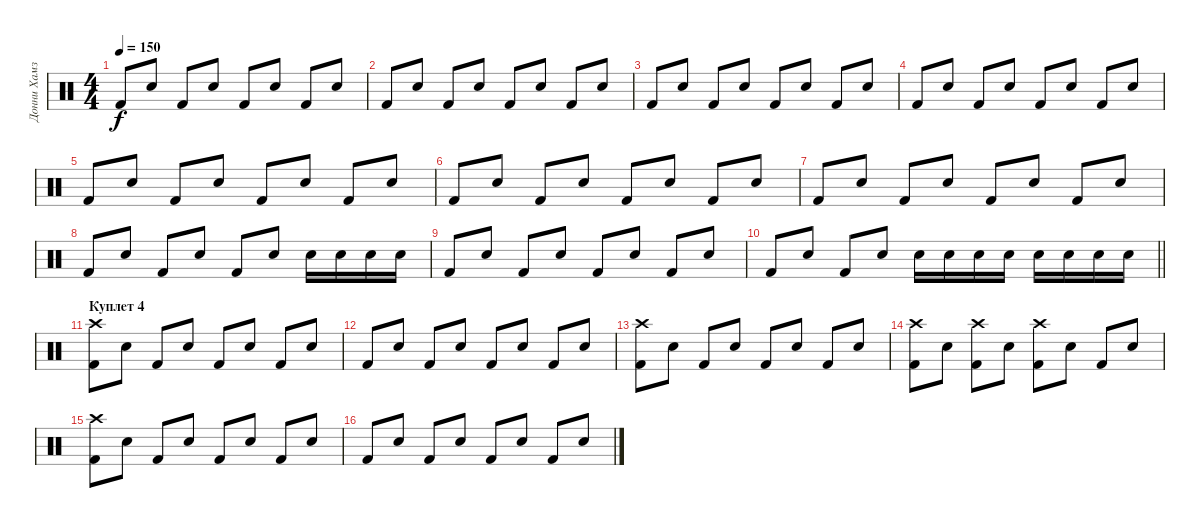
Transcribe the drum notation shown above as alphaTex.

\track ("Донни Хамзик" "Донни Хамз") {instrument percussion}
\staff {score}
\articulation defaults
\ts (4 4)
\tempo 150
\clef neutral
\ks c "Kick (hit) 2".8{dy f} "Snare (hit) 2".8 "Kick (hit) 2".8 "Snare (hit) 2".8 "Kick (hit) 2".8 "Snare (hit) 2".8 "Kick (hit) 2".8 "Snare (hit) 2".8
|
"Kick (hit) 2".8 "Snare (hit) 2".8 "Kick (hit) 2".8 "Snare (hit) 2".8 "Kick (hit) 2".8 "Snare (hit) 2".8 "Kick (hit) 2".8 "Snare (hit) 2".8 |
"Kick (hit) 2".8 "Snare (hit) 2".8 "Kick (hit) 2".8 "Snare (hit) 2".8 "Kick (hit) 2".8 "Snare (hit) 2".8 "Kick (hit) 2".8 "Snare (hit) 2".8 |
"Kick (hit) 2".8 "Snare (hit) 2".8 "Kick (hit) 2".8 "Snare (hit) 2".8 "Kick (hit) 2".8 "Snare (hit) 2".8 "Kick (hit) 2".8 "Snare (hit) 2".8 |
"Kick (hit) 2".8 "Snare (hit) 2".8 "Kick (hit) 2".8 "Snare (hit) 2".8 "Kick (hit) 2".8 "Snare (hit) 2".8 "Kick (hit) 2".8 "Snare (hit) 2".8 |
"Kick (hit) 2".8 "Snare (hit) 2".8 "Kick (hit) 2".8 "Snare (hit) 2".8 "Kick (hit) 2".8 "Snare (hit) 2".8 "Kick (hit) 2".8 "Snare (hit) 2".8 |
"Kick (hit) 2".8 "Snare (hit) 2".8 "Kick (hit) 2".8 "Snare (hit) 2".8 "Kick (hit) 2".8 "Snare (hit) 2".8 "Kick (hit) 2".8 "Snare (hit) 2".8 |
"Kick (hit) 2".8 "Snare (hit) 2".8 "Kick (hit) 2".8 "Snare (hit) 2".8 "Kick (hit) 2".8 "Snare (hit) 2".8 "Snare (hit) 2".16 "Snare (hit) 2".16 "Snare (hit) 2".16 "Snare (hit) 2".16 |
"Kick (hit) 2".8 "Snare (hit) 2".8 "Kick (hit) 2".8 "Snare (hit) 2".8 "Kick (hit) 2".8 "Snare (hit) 2".8 "Kick (hit) 2".8 "Snare (hit) 2".8 |
\barLineRight lightlight "Kick (hit) 2".8 "Snare (hit) 2".8 "Kick (hit) 2".8 "Snare (hit) 2".8 "Snare (hit) 2".16 "Snare (hit) 2".16 "Snare (hit) 2".16 "Snare (hit) 2".16 "Snare (hit) 2".16 "Snare (hit) 2".16 "Snare (hit) 2".16 "Snare (hit) 2".16
|
\section ("" "Куплет 4")
("Crash high (hit)" "Kick (hit) 2").8 "Snare (hit) 2".8 "Kick (hit) 2".8 "Snare (hit) 2".8 "Kick (hit) 2".8 "Snare (hit) 2".8 "Kick (hit) 2".8 "Snare (hit) 2".8 |
"Kick (hit) 2".8 "Snare (hit) 2".8 "Kick (hit) 2".8 "Snare (hit) 2".8 "Kick (hit) 2".8 "Snare (hit) 2".8 "Kick (hit) 2".8 "Snare (hit) 2".8 |
("Crash high (hit)" "Kick (hit) 2").8 "Snare (hit) 2".8 "Kick (hit) 2".8 "Snare (hit) 2".8 "Kick (hit) 2".8 "Snare (hit) 2".8 "Kick (hit) 2".8 "Snare (hit) 2".8 |
("Crash high (hit)" "Kick (hit) 2").8 "Snare (hit) 2".8 ("Crash high (hit)" "Kick (hit) 2").8 "Snare (hit) 2".8 ("Crash high (hit)" "Kick (hit) 2").8 "Snare (hit) 2".8 "Kick (hit) 2".8 "Snare (hit) 2".8 |
("Crash high (hit)" "Kick (hit) 2").8 "Snare (hit) 2".8 "Kick (hit) 2".8 "Snare (hit) 2".8 "Kick (hit) 2".8 "Snare (hit) 2".8 "Kick (hit) 2".8 "Snare (hit) 2".8 |
"Kick (hit) 2".8 "Snare (hit) 2".8 "Kick (hit) 2".8 "Snare (hit) 2".8 "Kick (hit) 2".8 "Snare (hit) 2".8 "Kick (hit) 2".8 "Snare (hit) 2".8
